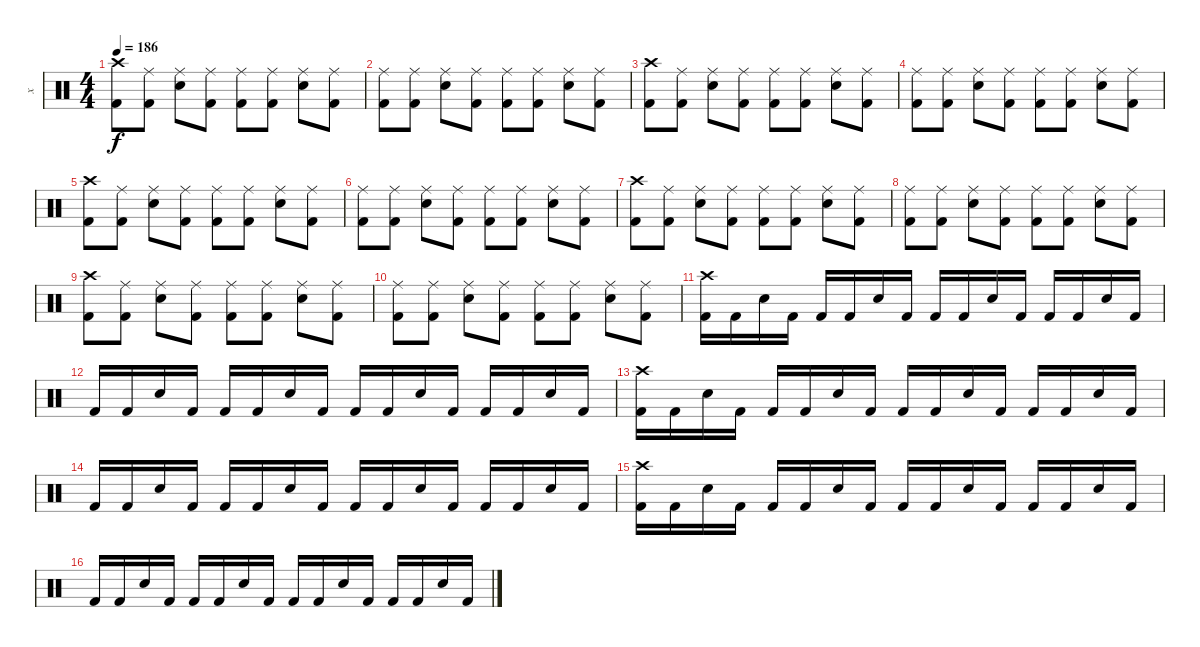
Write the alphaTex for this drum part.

\track ("x" "x") {instrument percussion}
\staff {score}
\articulation defaults
\ts (4 4)
\tempo 186
\clef neutral
\ks c
("Crash high (hit)" "Kick (hit) 2").8{dy f} ("Ride (middle)" "Kick (hit) 2").8 ("Ride (middle)" "Snare (hit) 2").8 ("Ride (middle)" "Kick (hit) 2").8 ("Ride (middle)" "Kick (hit) 2").8 ("Ride (middle)" "Kick (hit) 2").8 ("Ride (middle)" "Snare (hit) 2").8 ("Ride (middle)" "Kick (hit) 2").8 |
("Ride (middle)" "Kick (hit) 2").8 ("Ride (middle)" "Kick (hit) 2").8 ("Ride (middle)" "Snare (hit) 2").8 ("Ride (middle)" "Kick (hit) 2").8 ("Ride (middle)" "Kick (hit) 2").8 ("Ride (middle)" "Kick (hit) 2").8 ("Ride (middle)" "Snare (hit) 2").8 ("Ride (middle)" "Kick (hit) 2").8 |
("Crash high (hit)" "Kick (hit) 2").8 ("Ride (middle)" "Kick (hit) 2").8 ("Ride (middle)" "Snare (hit) 2").8 ("Ride (middle)" "Kick (hit) 2").8 ("Ride (middle)" "Kick (hit) 2").8 ("Ride (middle)" "Kick (hit) 2").8 ("Ride (middle)" "Snare (hit) 2").8 ("Ride (middle)" "Kick (hit) 2").8 |
("Ride (middle)" "Kick (hit) 2").8 ("Ride (middle)" "Kick (hit) 2").8 ("Ride (middle)" "Snare (hit) 2").8 ("Ride (middle)" "Kick (hit) 2").8 ("Ride (middle)" "Kick (hit) 2").8 ("Ride (middle)" "Kick (hit) 2").8 ("Ride (middle)" "Snare (hit) 2").8 ("Ride (middle)" "Kick (hit) 2").8 |
("Crash high (hit)" "Kick (hit) 2").8 ("Ride (middle)" "Kick (hit) 2").8 ("Ride (middle)" "Snare (hit) 2").8 ("Ride (middle)" "Kick (hit) 2").8 ("Ride (middle)" "Kick (hit) 2").8 ("Ride (middle)" "Kick (hit) 2").8 ("Ride (middle)" "Snare (hit) 2").8 ("Ride (middle)" "Kick (hit) 2").8 |
("Ride (middle)" "Kick (hit) 2").8 ("Ride (middle)" "Kick (hit) 2").8 ("Ride (middle)" "Snare (hit) 2").8 ("Ride (middle)" "Kick (hit) 2").8 ("Ride (middle)" "Kick (hit) 2").8 ("Ride (middle)" "Kick (hit) 2").8 ("Ride (middle)" "Snare (hit) 2").8 ("Ride (middle)" "Kick (hit) 2").8 |
("Crash high (hit)" "Kick (hit) 2").8 ("Ride (middle)" "Kick (hit) 2").8 ("Ride (middle)" "Snare (hit) 2").8 ("Ride (middle)" "Kick (hit) 2").8 ("Ride (middle)" "Kick (hit) 2").8 ("Ride (middle)" "Kick (hit) 2").8 ("Ride (middle)" "Snare (hit) 2").8 ("Ride (middle)" "Kick (hit) 2").8 |
("Ride (middle)" "Kick (hit) 2").8 ("Ride (middle)" "Kick (hit) 2").8 ("Ride (middle)" "Snare (hit) 2").8 ("Ride (middle)" "Kick (hit) 2").8 ("Ride (middle)" "Kick (hit) 2").8 ("Ride (middle)" "Kick (hit) 2").8 ("Ride (middle)" "Snare (hit) 2").8 ("Ride (middle)" "Kick (hit) 2").8 |
("Crash high (hit)" "Kick (hit) 2").8 ("Ride (middle)" "Kick (hit) 2").8 ("Ride (middle)" "Snare (hit) 2").8 ("Ride (middle)" "Kick (hit) 2").8 ("Ride (middle)" "Kick (hit) 2").8 ("Ride (middle)" "Kick (hit) 2").8 ("Ride (middle)" "Snare (hit) 2").8 ("Ride (middle)" "Kick (hit) 2").8 |
("Ride (middle)" "Kick (hit) 2").8 ("Ride (middle)" "Kick (hit) 2").8 ("Ride (middle)" "Snare (hit) 2").8 ("Ride (middle)" "Kick (hit) 2").8 ("Ride (middle)" "Kick (hit) 2").8 ("Ride (middle)" "Kick (hit) 2").8 ("Ride (middle)" "Snare (hit) 2").8 ("Ride (middle)" "Kick (hit) 2").8 |
("Crash high (hit)" "Kick (hit) 2").16 "Kick (hit) 2".16 "Snare (hit) 2".16 "Kick (hit) 2".16 "Kick (hit) 2".16 "Kick (hit) 2".16 "Snare (hit) 2".16 "Kick (hit) 2".16 "Kick (hit) 2".16 "Kick (hit) 2".16 "Snare (hit) 2".16 "Kick (hit) 2".16 "Kick (hit) 2".16 "Kick (hit) 2".16 "Snare (hit) 2".16 "Kick (hit) 2".16 |
"Kick (hit) 2".16 "Kick (hit) 2".16 "Snare (hit) 2".16 "Kick (hit) 2".16 "Kick (hit) 2".16 "Kick (hit) 2".16 "Snare (hit) 2".16 "Kick (hit) 2".16 "Kick (hit) 2".16 "Kick (hit) 2".16 "Snare (hit) 2".16 "Kick (hit) 2".16 "Kick (hit) 2".16 "Kick (hit) 2".16 "Snare (hit) 2".16 "Kick (hit) 2".16 |
("Crash high (hit)" "Kick (hit) 2").16 "Kick (hit) 2".16 "Snare (hit) 2".16 "Kick (hit) 2".16 "Kick (hit) 2".16 "Kick (hit) 2".16 "Snare (hit) 2".16 "Kick (hit) 2".16 "Kick (hit) 2".16 "Kick (hit) 2".16 "Snare (hit) 2".16 "Kick (hit) 2".16 "Kick (hit) 2".16 "Kick (hit) 2".16 "Snare (hit) 2".16 "Kick (hit) 2".16 |
"Kick (hit) 2".16 "Kick (hit) 2".16 "Snare (hit) 2".16 "Kick (hit) 2".16 "Kick (hit) 2".16 "Kick (hit) 2".16 "Snare (hit) 2".16 "Kick (hit) 2".16 "Kick (hit) 2".16 "Kick (hit) 2".16 "Snare (hit) 2".16 "Kick (hit) 2".16 "Kick (hit) 2".16 "Kick (hit) 2".16 "Snare (hit) 2".16 "Kick (hit) 2".16 |
("Crash high (hit)" "Kick (hit) 2").16 "Kick (hit) 2".16 "Snare (hit) 2".16 "Kick (hit) 2".16 "Kick (hit) 2".16 "Kick (hit) 2".16 "Snare (hit) 2".16 "Kick (hit) 2".16 "Kick (hit) 2".16 "Kick (hit) 2".16 "Snare (hit) 2".16 "Kick (hit) 2".16 "Kick (hit) 2".16 "Kick (hit) 2".16 "Snare (hit) 2".16 "Kick (hit) 2".16 |
"Kick (hit) 2".16 "Kick (hit) 2".16 "Snare (hit) 2".16 "Kick (hit) 2".16 "Kick (hit) 2".16 "Kick (hit) 2".16 "Snare (hit) 2".16 "Kick (hit) 2".16 "Kick (hit) 2".16 "Kick (hit) 2".16 "Snare (hit) 2".16 "Kick (hit) 2".16 "Kick (hit) 2".16 "Kick (hit) 2".16 "Snare (hit) 2".16 "Kick (hit) 2".16
